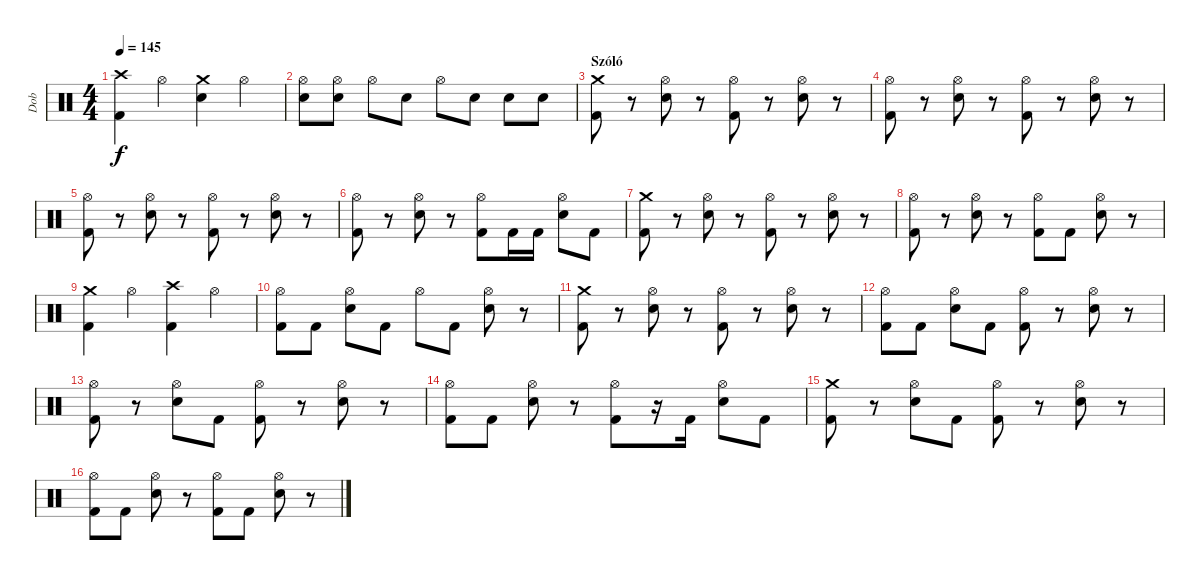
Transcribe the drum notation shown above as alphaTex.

\track ("Dob" "Dob") {instrument percussion}
\staff {score}
\articulation defaults
\ts (4 4)
\tempo 145
\clef neutral
\ks c
("Crash high (hit)" "Kick (hit) 2").4{dy f} "Hi-Hat (open)".4 ("Crash medium (hit)" "Electric Snare (hit)").4 "Hi-Hat (open)".4 |
("Hi-Hat (open)" "Electric Snare (hit)").8 ("Hi-Hat (open)" "Electric Snare (hit)").8 "Hi-Hat (open)".8 "Electric Snare (hit)".8 "Hi-Hat (open)".8 "Electric Snare (hit)".8 "Electric Snare (hit)".8 "Electric Snare (hit)".8 |
\section ("" "Szóló")
("Crash medium (hit)" "Kick (hit) 2").8 r.8 ("Hi-Hat (open)" "Electric Snare (hit)").8 r.8 ("Hi-Hat (open)" "Kick (hit) 2").8 r.8 ("Hi-Hat (open)" "Electric Snare (hit)").8 r.8 |
("Hi-Hat (open)" "Kick (hit) 2").8 r.8 ("Hi-Hat (open)" "Electric Snare (hit)").8 r.8 ("Hi-Hat (open)" "Kick (hit) 2").8 r.8 ("Hi-Hat (open)" "Electric Snare (hit)").8 r.8 |
("Hi-Hat (open)" "Kick (hit) 2").8 r.8 ("Hi-Hat (open)" "Electric Snare (hit)").8 r.8 ("Hi-Hat (open)" "Kick (hit) 2").8 r.8 ("Hi-Hat (open)" "Electric Snare (hit)").8 r.8 |
("Hi-Hat (open)" "Kick (hit) 2").8 r.8 ("Hi-Hat (open)" "Electric Snare (hit)").8 r.8 ("Hi-Hat (open)" "Kick (hit) 2").8 "Kick (hit) 2".16 "Kick (hit) 2".16 ("Hi-Hat (open)" "Electric Snare (hit)").8 "Kick (hit) 2".8 |
("Crash medium (hit)" "Kick (hit) 2").8 r.8 ("Hi-Hat (open)" "Electric Snare (hit)").8 r.8 ("Hi-Hat (open)" "Kick (hit) 2").8 r.8 ("Hi-Hat (open)" "Electric Snare (hit)").8 r.8 |
("Hi-Hat (open)" "Kick (hit) 2").8 r.8 ("Hi-Hat (open)" "Electric Snare (hit)").8 r.8 ("Hi-Hat (open)" "Kick (hit) 2").8 "Kick (hit) 2".8 ("Hi-Hat (open)" "Electric Snare (hit)").8 r.8 |
("Crash medium (hit)" "Kick (hit) 2").4 "Hi-Hat (open)".4 ("Crash high (hit)" "Kick (hit) 2").4 "Hi-Hat (open)".4 |
("Hi-Hat (open)" "Kick (hit) 2").8 "Kick (hit) 2".8 ("Hi-Hat (open)" "Electric Snare (hit)").8 "Kick (hit) 2".8 "Hi-Hat (open)".8 "Kick (hit) 2".8 ("Hi-Hat (open)" "Electric Snare (hit)").8 r.8 |
("Crash medium (hit)" "Kick (hit) 2").8 r.8 ("Hi-Hat (open)" "Electric Snare (hit)").8 r.8 ("Hi-Hat (open)" "Kick (hit) 2").8 r.8 ("Hi-Hat (open)" "Electric Snare (hit)").8 r.8 |
("Hi-Hat (open)" "Kick (hit) 2").8 "Kick (hit) 2".8 ("Hi-Hat (open)" "Electric Snare (hit)").8 "Kick (hit) 2".8 ("Hi-Hat (open)" "Kick (hit) 2").8 r.8 ("Hi-Hat (open)" "Electric Snare (hit)").8 r.8 |
("Hi-Hat (open)" "Kick (hit) 2").8 r.8 ("Hi-Hat (open)" "Electric Snare (hit)").8 "Kick (hit) 2".8 ("Hi-Hat (open)" "Kick (hit) 2").8 r.8 ("Hi-Hat (open)" "Electric Snare (hit)").8 r.8 |
("Hi-Hat (open)" "Kick (hit) 2").8 "Kick (hit) 2".8 ("Hi-Hat (open)" "Electric Snare (hit)").8 r.8 ("Hi-Hat (open)" "Kick (hit) 2").8 r.16 "Kick (hit) 2".16 ("Hi-Hat (open)" "Electric Snare (hit)").8 "Kick (hit) 2".8 |
("Crash medium (hit)" "Kick (hit) 2").8 r.8 ("Hi-Hat (open)" "Electric Snare (hit)").8 "Kick (hit) 2".8 ("Hi-Hat (open)" "Kick (hit) 2").8 r.8 ("Hi-Hat (open)" "Electric Snare (hit)").8 r.8 |
("Hi-Hat (open)" "Kick (hit) 2").8 "Kick (hit) 2".8 ("Hi-Hat (open)" "Electric Snare (hit)").8 r.8 ("Hi-Hat (open)" "Kick (hit) 2").8 "Kick (hit) 2".8 ("Hi-Hat (open)" "Electric Snare (hit)").8 r.8
